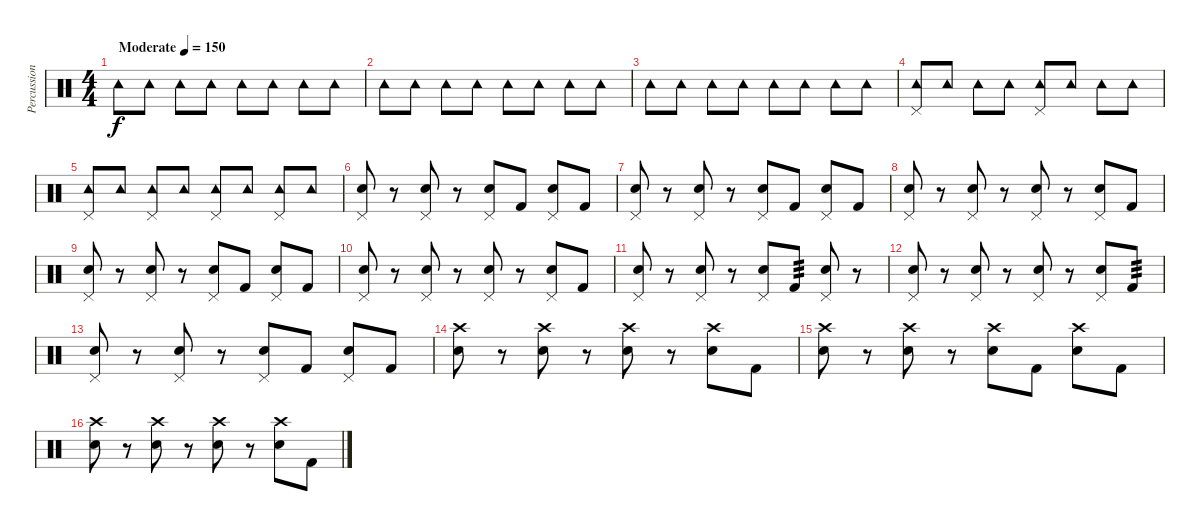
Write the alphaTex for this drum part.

\track ("Percussion" "Percussion") {instrument percussion}
\staff {score}
\articulation defaults
\ts (4 4)
\tempo (150 "Moderate")
\clef neutral
\ks c "Tambourine (hit)".8{dy f} "Tambourine (hit)".8 "Tambourine (hit)".8 "Tambourine (hit)".8 "Tambourine (hit)".8 "Tambourine (hit)".8 "Tambourine (hit)".8 "Tambourine (hit)".8
|
"Tambourine (hit)".8 "Tambourine (hit)".8 "Tambourine (hit)".8 "Tambourine (hit)".8 "Tambourine (hit)".8 "Tambourine (hit)".8 "Tambourine (hit)".8 "Tambourine (hit)".8 |
"Tambourine (hit)".8 "Tambourine (hit)".8 "Tambourine (hit)".8 "Tambourine (hit)".8 "Tambourine (hit)".8 "Tambourine (hit)".8 "Tambourine (hit)".8 "Tambourine (hit)".8 |
("Pedal Hi-Hat (hit)" "Tambourine (hit)").8 "Tambourine (hit)".8 "Tambourine (hit)".8 "Tambourine (hit)".8 ("Pedal Hi-Hat (hit)" "Tambourine (hit)").8 "Tambourine (hit)".8 "Tambourine (hit)".8 "Tambourine (hit)".8 |
("Pedal Hi-Hat (hit)" "Tambourine (hit)").8 "Tambourine (hit)".8 ("Pedal Hi-Hat (hit)" "Tambourine (hit)").8 "Tambourine (hit)".8 ("Pedal Hi-Hat (hit)" "Tambourine (hit)").8 "Tambourine (hit)".8 ("Pedal Hi-Hat (hit)" "Tambourine (hit)").8 "Tambourine (hit)".8 |
("Pedal Hi-Hat (hit)" "Electric Snare (hit)").8 r.8 ("Pedal Hi-Hat (hit)" "Electric Snare (hit)").8 r.8 ("Pedal Hi-Hat (hit)" "Electric Snare (hit)").8 "Kick (hit) 2".8 ("Pedal Hi-Hat (hit)" "Electric Snare (hit)").8 "Kick (hit) 2".8 |
("Pedal Hi-Hat (hit)" "Electric Snare (hit)").8 r.8 ("Pedal Hi-Hat (hit)" "Electric Snare (hit)").8 r.8 ("Pedal Hi-Hat (hit)" "Electric Snare (hit)").8 "Kick (hit) 2".8 ("Pedal Hi-Hat (hit)" "Electric Snare (hit)").8 "Kick (hit) 2".8 |
("Pedal Hi-Hat (hit)" "Electric Snare (hit)").8 r.8 ("Pedal Hi-Hat (hit)" "Electric Snare (hit)").8 r.8 ("Pedal Hi-Hat (hit)" "Electric Snare (hit)").8 r.8 ("Pedal Hi-Hat (hit)" "Electric Snare (hit)").8 "Kick (hit) 2".8 |
("Pedal Hi-Hat (hit)" "Electric Snare (hit)").8 r.8 ("Pedal Hi-Hat (hit)" "Electric Snare (hit)").8 r.8 ("Pedal Hi-Hat (hit)" "Electric Snare (hit)").8 "Kick (hit) 2".8 ("Pedal Hi-Hat (hit)" "Electric Snare (hit)").8 "Kick (hit) 2".8 |
("Pedal Hi-Hat (hit)" "Electric Snare (hit)").8 r.8 ("Pedal Hi-Hat (hit)" "Electric Snare (hit)").8 r.8 ("Pedal Hi-Hat (hit)" "Electric Snare (hit)").8 r.8 ("Pedal Hi-Hat (hit)" "Electric Snare (hit)").8 "Kick (hit) 2".8 |
("Pedal Hi-Hat (hit)" "Electric Snare (hit)").8 r.8 ("Pedal Hi-Hat (hit)" "Electric Snare (hit)").8 r.8 ("Pedal Hi-Hat (hit)" "Electric Snare (hit)").8 "Kick (hit) 2".8{tp 3} ("Pedal Hi-Hat (hit)" "Electric Snare (hit)").8 r.8 |
("Pedal Hi-Hat (hit)" "Electric Snare (hit)").8 r.8 ("Pedal Hi-Hat (hit)" "Electric Snare (hit)").8 r.8 ("Pedal Hi-Hat (hit)" "Electric Snare (hit)").8 r.8 ("Pedal Hi-Hat (hit)" "Electric Snare (hit)").8 "Kick (hit) 2".8{tp 3} |
("Pedal Hi-Hat (hit)" "Electric Snare (hit)").8 r.8 ("Pedal Hi-Hat (hit)" "Electric Snare (hit)").8 r.8 ("Pedal Hi-Hat (hit)" "Electric Snare (hit)").8 "Kick (hit) 2".8 ("Pedal Hi-Hat (hit)" "Electric Snare (hit)").8 "Kick (hit) 2".8 |
("Crash high (hit)" "Electric Snare (hit)").8 r.8 ("Crash high (hit)" "Electric Snare (hit)").8 r.8 ("Crash high (hit)" "Electric Snare (hit)").8 r.8 ("Crash high (hit)" "Electric Snare (hit)").8 "Kick (hit) 2".8 |
("Crash high (hit)" "Electric Snare (hit)").8 r.8 ("Crash high (hit)" "Electric Snare (hit)").8 r.8 ("Crash high (hit)" "Electric Snare (hit)").8 "Kick (hit) 2".8 ("Crash high (hit)" "Electric Snare (hit)").8 "Kick (hit) 2".8 |
("Crash high (hit)" "Electric Snare (hit)").8 r.8 ("Crash high (hit)" "Electric Snare (hit)").8 r.8 ("Crash high (hit)" "Electric Snare (hit)").8 r.8 ("Crash high (hit)" "Electric Snare (hit)").8 "Kick (hit) 2".8
